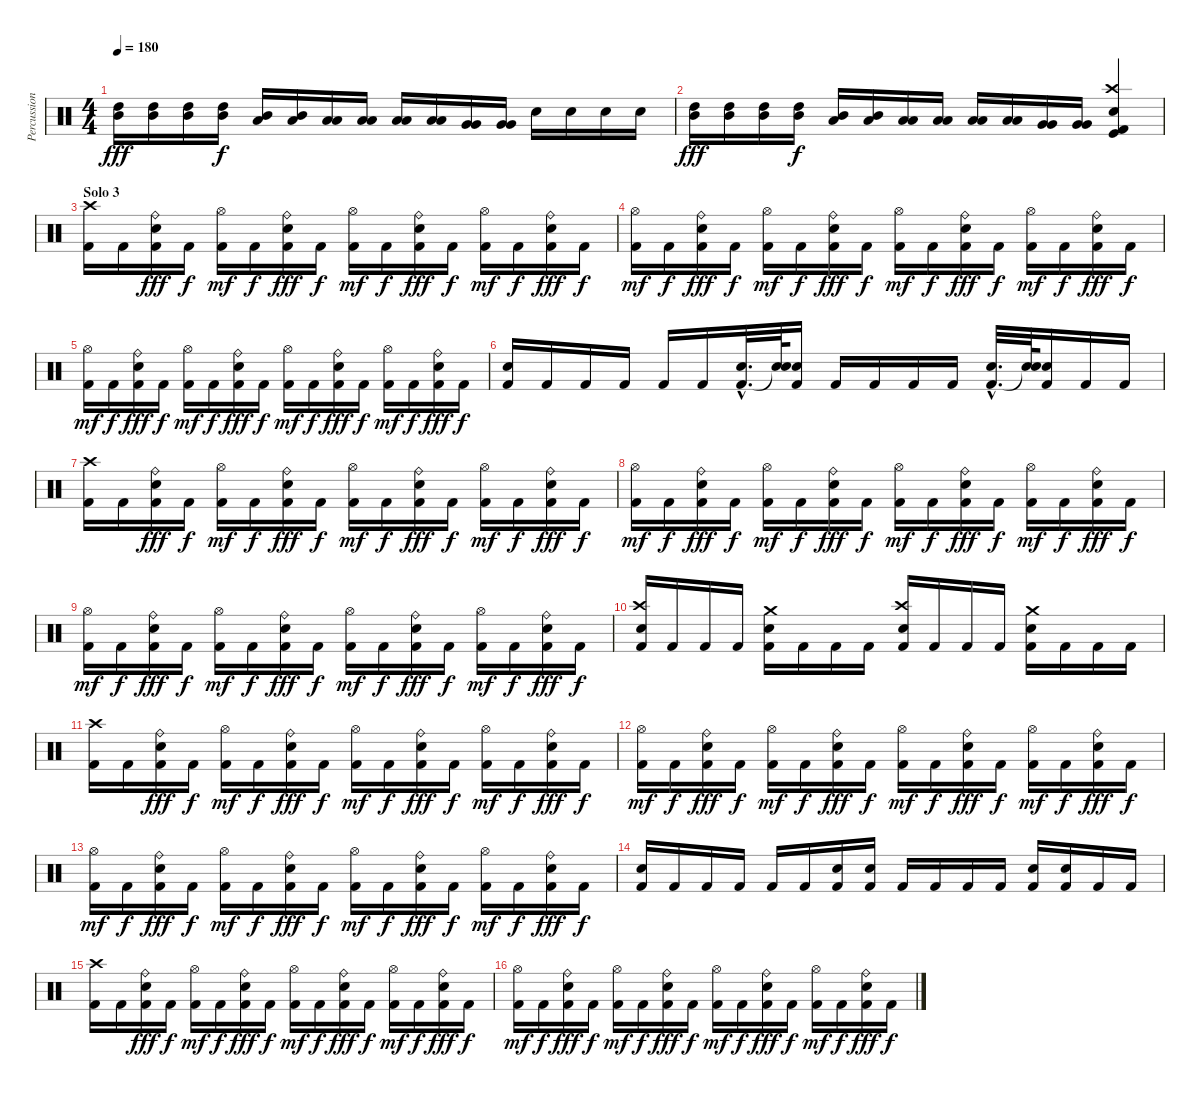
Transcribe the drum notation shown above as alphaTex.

\track ("Percussion" "Percussion") {instrument percussion}
\staff {score}
\articulation defaults
\ts (4 4)
\tempo 180
\clef neutral
\ks c
("High Tom (hit)" "Mid Tom (hit)").16{dy fff} ("High Tom (hit)" "Mid Tom (hit)").16 ("High Tom (hit)" "Mid Tom (hit)").16 ("High Tom (hit)" "Mid Tom (hit)").16{dy f} ("Mid Tom (hit)" "Low Tom (hit)").16 ("Mid Tom (hit)" "Low Tom (hit)").16 ("Low Tom (hit)" "Low Tom (hit)").16 ("Low Tom (hit)" "Low Tom (hit)").16 ("Low Tom (hit)" "Low Tom (hit)").16 ("Low Tom (hit)" "Low Tom (hit)").16 ("Very Low Tom (hit)" "Very Low Tom (hit)").16 ("Very Low Tom (hit)" "Very Low Tom (hit)").16 "Snare (hit) 2".16 "Snare (hit) 2".16 "Snare (hit) 2".16 "Snare (hit) 2".16 |
("High Tom (hit)" "Mid Tom (hit)").16{dy fff} ("High Tom (hit)" "Mid Tom (hit)").16 ("High Tom (hit)" "Mid Tom (hit)").16 ("High Tom (hit)" "Mid Tom (hit)").16{dy f} ("Mid Tom (hit)" "Low Tom (hit)").16 ("Mid Tom (hit)" "Low Tom (hit)").16 ("Low Tom (hit)" "Low Tom (hit)").16 ("Low Tom (hit)" "Low Tom (hit)").16 ("Low Tom (hit)" "Low Tom (hit)").16 ("Low Tom (hit)" "Low Tom (hit)").16 ("Very Low Tom (hit)" "Very Low Tom (hit)").16 ("Very Low Tom (hit)" "Very Low Tom (hit)").16 ("Crash high (hit)" "Snare (hit) 2" "Kick (hit)" "Kick (hit) 2").4 |
\section ("" "Solo 3")
("Crash high (hit)" "Kick (hit) 2").16 "Kick (hit) 2".16 ("Ride (bell)" "Snare (hit) 2" "Kick (hit) 2").16{dy fff} "Kick (hit) 2".16{dy f} ("Hi-Hat (open)" "Kick (hit) 2").16{dy mf} "Kick (hit) 2".16{dy f} ("Ride (bell)" "Snare (hit) 2" "Kick (hit) 2").16{dy fff} "Kick (hit) 2".16{dy f} ("Hi-Hat (open)" "Kick (hit) 2").16{dy mf} "Kick (hit) 2".16{dy f} ("Ride (bell)" "Snare (hit) 2" "Kick (hit) 2").16{dy fff} "Kick (hit) 2".16{dy f} ("Hi-Hat (open)" "Kick (hit) 2").16{dy mf} "Kick (hit) 2".16{dy f} ("Ride (bell)" "Snare (hit) 2" "Kick (hit) 2").16{dy fff} "Kick (hit) 2".16{dy f} |
("Hi-Hat (open)" "Kick (hit) 2").16{dy mf} "Kick (hit) 2".16{dy f} ("Ride (bell)" "Snare (hit) 2" "Kick (hit) 2").16{dy fff} "Kick (hit) 2".16{dy f} ("Hi-Hat (open)" "Kick (hit) 2").16{dy mf} "Kick (hit) 2".16{dy f} ("Ride (bell)" "Snare (hit) 2" "Kick (hit) 2").16{dy fff} "Kick (hit) 2".16{dy f} ("Hi-Hat (open)" "Kick (hit) 2").16{dy mf} "Kick (hit) 2".16{dy f} ("Ride (bell)" "Snare (hit) 2" "Kick (hit) 2").16{dy fff} "Kick (hit) 2".16{dy f} ("Hi-Hat (open)" "Kick (hit) 2").16{dy mf} "Kick (hit) 2".16{dy f} ("Ride (bell)" "Snare (hit) 2" "Kick (hit) 2").16{dy fff} "Kick (hit) 2".16{dy f} |
("Hi-Hat (open)" "Kick (hit) 2").16{dy mf} "Kick (hit) 2".16{dy f} ("Ride (bell)" "Snare (hit) 2" "Kick (hit) 2").16{dy fff} "Kick (hit) 2".16{dy f} ("Hi-Hat (open)" "Kick (hit) 2").16{dy mf} "Kick (hit) 2".16{dy f} ("Ride (bell)" "Snare (hit) 2" "Kick (hit) 2").16{dy fff} "Kick (hit) 2".16{dy f} ("Hi-Hat (open)" "Kick (hit) 2").16{dy mf} "Kick (hit) 2".16{dy f} ("Ride (bell)" "Snare (hit) 2" "Kick (hit) 2").16{dy fff} "Kick (hit) 2".16{dy f} ("Hi-Hat (open)" "Kick (hit) 2").16{dy mf} "Kick (hit) 2".16{dy f} ("Ride (bell)" "Snare (hit) 2" "Kick (hit) 2").16{dy fff} "Kick (hit) 2".16{dy f} |
("Snare (hit) 2" "Kick (hit) 2").16 "Kick (hit) 2".16 "Kick (hit) 2".16 "Kick (hit) 2".16 "Kick (hit) 2".16 "Kick (hit) 2".16 ("Snare (hit) 2"{hac} "Kick (hit) 2"{hac}).32{d} ("Snare (hit) 2" "Snare (hit)"{t}).64 ("Electric Snare (hit)"{t} "Kick (hit) 2").16 "Kick (hit) 2".16 "Kick (hit) 2".16 "Kick (hit) 2".16 "Kick (hit) 2".16 ("Snare (hit) 2"{hac} "Kick (hit) 2"{hac}).32{d} ("Snare (hit) 2" "Snare (hit)"{t}).64 ("Snare (hit) 2"{t} "Kick (hit) 2").16 "Kick (hit) 2".16 "Kick (hit) 2".16 |
("Crash high (hit)" "Kick (hit) 2").16 "Kick (hit) 2".16 ("Ride (bell)" "Snare (hit) 2" "Kick (hit) 2").16{dy fff} "Kick (hit) 2".16{dy f} ("Hi-Hat (open)" "Kick (hit) 2").16{dy mf} "Kick (hit) 2".16{dy f} ("Ride (bell)" "Snare (hit) 2" "Kick (hit) 2").16{dy fff} "Kick (hit) 2".16{dy f} ("Hi-Hat (open)" "Kick (hit) 2").16{dy mf} "Kick (hit) 2".16{dy f} ("Ride (bell)" "Snare (hit) 2" "Kick (hit) 2").16{dy fff} "Kick (hit) 2".16{dy f} ("Hi-Hat (open)" "Kick (hit) 2").16{dy mf} "Kick (hit) 2".16{dy f} ("Ride (bell)" "Snare (hit) 2" "Kick (hit) 2").16{dy fff} "Kick (hit) 2".16{dy f} |
("Hi-Hat (open)" "Kick (hit) 2").16{dy mf} "Kick (hit) 2".16{dy f} ("Ride (bell)" "Snare (hit) 2" "Kick (hit) 2").16{dy fff} "Kick (hit) 2".16{dy f} ("Hi-Hat (open)" "Kick (hit) 2").16{dy mf} "Kick (hit) 2".16{dy f} ("Ride (bell)" "Snare (hit) 2" "Kick (hit) 2").16{dy fff} "Kick (hit) 2".16{dy f} ("Hi-Hat (open)" "Kick (hit) 2").16{dy mf} "Kick (hit) 2".16{dy f} ("Ride (bell)" "Snare (hit) 2" "Kick (hit) 2").16{dy fff} "Kick (hit) 2".16{dy f} ("Hi-Hat (open)" "Kick (hit) 2").16{dy mf} "Kick (hit) 2".16{dy f} ("Ride (bell)" "Snare (hit) 2" "Kick (hit) 2").16{dy fff} "Kick (hit) 2".16{dy f} |
("Hi-Hat (open)" "Kick (hit) 2").16{dy mf} "Kick (hit) 2".16{dy f} ("Ride (bell)" "Snare (hit) 2" "Kick (hit) 2").16{dy fff} "Kick (hit) 2".16{dy f} ("Hi-Hat (open)" "Kick (hit) 2").16{dy mf} "Kick (hit) 2".16{dy f} ("Ride (bell)" "Snare (hit) 2" "Kick (hit) 2").16{dy fff} "Kick (hit) 2".16{dy f} ("Hi-Hat (open)" "Kick (hit) 2").16{dy mf} "Kick (hit) 2".16{dy f} ("Ride (bell)" "Snare (hit) 2" "Kick (hit) 2").16{dy fff} "Kick (hit) 2".16{dy f} ("Hi-Hat (open)" "Kick (hit) 2").16{dy mf} "Kick (hit) 2".16{dy f} ("Ride (bell)" "Snare (hit) 2" "Kick (hit) 2").16{dy fff} "Kick (hit) 2".16{dy f} |
("Crash high (hit)" "Snare (hit) 2" "Kick (hit) 2").16 "Kick (hit) 2".16 "Kick (hit) 2".16 "Kick (hit) 2".16 ("Crash medium (hit)" "Snare (hit) 2" "Kick (hit) 2").16 "Kick (hit) 2".16 "Kick (hit) 2".16 "Kick (hit) 2".16 ("Crash high (hit)" "Snare (hit) 2" "Kick (hit) 2").16 "Kick (hit) 2".16 "Kick (hit) 2".16 "Kick (hit) 2".16 ("Crash medium (hit)" "Snare (hit) 2" "Kick (hit) 2").16 "Kick (hit) 2".16 "Kick (hit) 2".16 "Kick (hit) 2".16 |
("Crash high (hit)" "Kick (hit) 2").16 "Kick (hit) 2".16 ("Ride (bell)" "Snare (hit) 2" "Kick (hit) 2").16{dy fff} "Kick (hit) 2".16{dy f} ("Hi-Hat (open)" "Kick (hit) 2").16{dy mf} "Kick (hit) 2".16{dy f} ("Ride (bell)" "Snare (hit) 2" "Kick (hit) 2").16{dy fff} "Kick (hit) 2".16{dy f} ("Hi-Hat (open)" "Kick (hit) 2").16{dy mf} "Kick (hit) 2".16{dy f} ("Ride (bell)" "Snare (hit) 2" "Kick (hit) 2").16{dy fff} "Kick (hit) 2".16{dy f} ("Hi-Hat (open)" "Kick (hit) 2").16{dy mf} "Kick (hit) 2".16{dy f} ("Ride (bell)" "Snare (hit) 2" "Kick (hit) 2").16{dy fff} "Kick (hit) 2".16{dy f} |
("Hi-Hat (open)" "Kick (hit) 2").16{dy mf} "Kick (hit) 2".16{dy f} ("Ride (bell)" "Snare (hit) 2" "Kick (hit) 2").16{dy fff} "Kick (hit) 2".16{dy f} ("Hi-Hat (open)" "Kick (hit) 2").16{dy mf} "Kick (hit) 2".16{dy f} ("Ride (bell)" "Snare (hit) 2" "Kick (hit) 2").16{dy fff} "Kick (hit) 2".16{dy f} ("Hi-Hat (open)" "Kick (hit) 2").16{dy mf} "Kick (hit) 2".16{dy f} ("Ride (bell)" "Snare (hit) 2" "Kick (hit) 2").16{dy fff} "Kick (hit) 2".16{dy f} ("Hi-Hat (open)" "Kick (hit) 2").16{dy mf} "Kick (hit) 2".16{dy f} ("Ride (bell)" "Snare (hit) 2" "Kick (hit) 2").16{dy fff} "Kick (hit) 2".16{dy f} |
("Hi-Hat (open)" "Kick (hit) 2").16{dy mf} "Kick (hit) 2".16{dy f} ("Ride (bell)" "Snare (hit) 2" "Kick (hit) 2").16{dy fff} "Kick (hit) 2".16{dy f} ("Hi-Hat (open)" "Kick (hit) 2").16{dy mf} "Kick (hit) 2".16{dy f} ("Ride (bell)" "Snare (hit) 2" "Kick (hit) 2").16{dy fff} "Kick (hit) 2".16{dy f} ("Hi-Hat (open)" "Kick (hit) 2").16{dy mf} "Kick (hit) 2".16{dy f} ("Ride (bell)" "Snare (hit) 2" "Kick (hit) 2").16{dy fff} "Kick (hit) 2".16{dy f} ("Hi-Hat (open)" "Kick (hit) 2").16{dy mf} "Kick (hit) 2".16{dy f} ("Ride (bell)" "Snare (hit) 2" "Kick (hit) 2").16{dy fff} "Kick (hit) 2".16{dy f} |
("Snare (hit) 2" "Kick (hit) 2").16 "Kick (hit) 2".16 "Kick (hit) 2".16 "Kick (hit) 2".16 "Kick (hit) 2".16 "Kick (hit) 2".16 ("Snare (hit) 2" "Kick (hit) 2").16 ("Snare (hit) 2" "Kick (hit) 2").16 "Kick (hit) 2".16 "Kick (hit) 2".16 "Kick (hit) 2".16 "Kick (hit) 2".16 ("Snare (hit) 2" "Kick (hit) 2").16 ("Snare (hit) 2" "Kick (hit) 2").16 "Kick (hit) 2".16 "Kick (hit) 2".16 |
("Crash high (hit)" "Kick (hit) 2").16 "Kick (hit) 2".16 ("Ride (bell)" "Snare (hit) 2" "Kick (hit) 2").16{dy fff} "Kick (hit) 2".16{dy f} ("Hi-Hat (open)" "Kick (hit) 2").16{dy mf} "Kick (hit) 2".16{dy f} ("Ride (bell)" "Snare (hit) 2" "Kick (hit) 2").16{dy fff} "Kick (hit) 2".16{dy f} ("Hi-Hat (open)" "Kick (hit) 2").16{dy mf} "Kick (hit) 2".16{dy f} ("Ride (bell)" "Snare (hit) 2" "Kick (hit) 2").16{dy fff} "Kick (hit) 2".16{dy f} ("Hi-Hat (open)" "Kick (hit) 2").16{dy mf} "Kick (hit) 2".16{dy f} ("Ride (bell)" "Snare (hit) 2" "Kick (hit) 2").16{dy fff} "Kick (hit) 2".16{dy f} |
("Hi-Hat (open)" "Kick (hit) 2").16{dy mf} "Kick (hit) 2".16{dy f} ("Ride (bell)" "Snare (hit) 2" "Kick (hit) 2").16{dy fff} "Kick (hit) 2".16{dy f} ("Hi-Hat (open)" "Kick (hit) 2").16{dy mf} "Kick (hit) 2".16{dy f} ("Ride (bell)" "Snare (hit) 2" "Kick (hit) 2").16{dy fff} "Kick (hit) 2".16{dy f} ("Hi-Hat (open)" "Kick (hit) 2").16{dy mf} "Kick (hit) 2".16{dy f} ("Ride (bell)" "Snare (hit) 2" "Kick (hit) 2").16{dy fff} "Kick (hit) 2".16{dy f} ("Hi-Hat (open)" "Kick (hit) 2").16{dy mf} "Kick (hit) 2".16{dy f} ("Ride (bell)" "Snare (hit) 2" "Kick (hit) 2").16{dy fff} "Kick (hit) 2".16{dy f}
